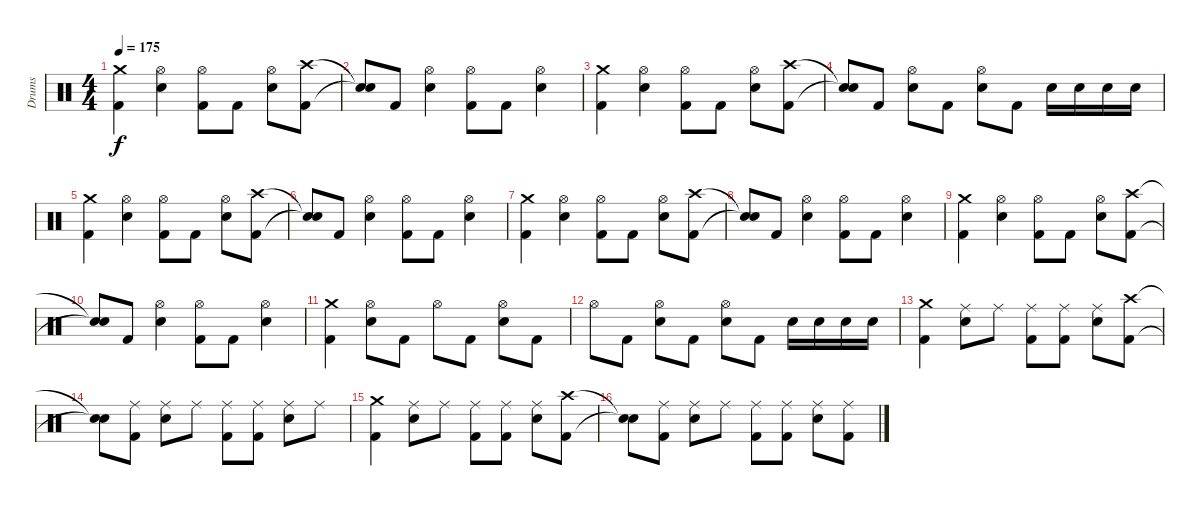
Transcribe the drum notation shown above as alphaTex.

\track ("Drums" "Drums") {instrument percussion}
\staff {score}
\articulation defaults
\ts (4 4)
\tempo 175
\clef neutral
\ks c
("Crash medium (hit)" "Kick (hit) 2").4{dy f} ("Hi-Hat (open)" "Electric Snare (hit)").4 ("Hi-Hat (open)" "Kick (hit) 2").8 "Kick (hit) 2".8 ("Hi-Hat (open)" "Electric Snare (hit)").8 ("Crash high (hit)" "Kick (hit) 2").8 |
("Snare (hit)"{t} "Snare (hit)"{t}).8 "Kick (hit) 2".8 ("Hi-Hat (open)" "Electric Snare (hit)").4 ("Hi-Hat (open)" "Kick (hit) 2").8 "Kick (hit) 2".8 ("Hi-Hat (open)" "Electric Snare (hit)").4 |
("Crash medium (hit)" "Kick (hit) 2").4 ("Hi-Hat (open)" "Electric Snare (hit)").4 ("Hi-Hat (open)" "Kick (hit) 2").8 "Kick (hit) 2".8 ("Hi-Hat (open)" "Electric Snare (hit)").8 ("Crash high (hit)" "Kick (hit) 2").8 |
("Snare (hit)"{t} "Snare (hit)"{t}).8 "Kick (hit) 2".8 ("Hi-Hat (open)" "Electric Snare (hit)").8 "Kick (hit) 2".8 ("Hi-Hat (open)" "Electric Snare (hit)").8 "Kick (hit) 2".8 "Electric Snare (hit)".16 "Electric Snare (hit)".16 "Electric Snare (hit)".16 "Electric Snare (hit)".16 |
("Crash medium (hit)" "Kick (hit) 2").4 ("Hi-Hat (open)" "Electric Snare (hit)").4 ("Hi-Hat (open)" "Kick (hit) 2").8 "Kick (hit) 2".8 ("Hi-Hat (open)" "Electric Snare (hit)").8 ("Crash high (hit)" "Kick (hit) 2").8 |
("Snare (hit)"{t} "Snare (hit)"{t}).8 "Kick (hit) 2".8 ("Hi-Hat (open)" "Electric Snare (hit)").4 ("Hi-Hat (open)" "Kick (hit) 2").8 "Kick (hit) 2".8 ("Hi-Hat (open)" "Electric Snare (hit)").4 |
("Crash medium (hit)" "Kick (hit) 2").4 ("Hi-Hat (open)" "Electric Snare (hit)").4 ("Hi-Hat (open)" "Kick (hit) 2").8 "Kick (hit) 2".8 ("Hi-Hat (open)" "Electric Snare (hit)").8 ("Crash high (hit)" "Kick (hit) 2").8 |
("Snare (hit)"{t} "Snare (hit)"{t}).8 "Kick (hit) 2".8 ("Hi-Hat (open)" "Electric Snare (hit)").4 ("Hi-Hat (open)" "Kick (hit) 2").8 "Kick (hit) 2".8 ("Hi-Hat (open)" "Electric Snare (hit)").4 |
("Crash medium (hit)" "Kick (hit) 2").4 ("Hi-Hat (open)" "Electric Snare (hit)").4 ("Hi-Hat (open)" "Kick (hit) 2").8 "Kick (hit) 2".8 ("Hi-Hat (open)" "Electric Snare (hit)").8 ("Crash high (hit)" "Kick (hit) 2").8 |
("Snare (hit)"{t} "Snare (hit)"{t}).8 "Kick (hit) 2".8 ("Hi-Hat (open)" "Electric Snare (hit)").4 ("Hi-Hat (open)" "Kick (hit) 2").8 "Kick (hit) 2".8 ("Hi-Hat (open)" "Electric Snare (hit)").4 |
("Crash medium (hit)" "Kick (hit) 2").4 ("Hi-Hat (open)" "Electric Snare (hit)").8 "Kick (hit) 2".8 "Hi-Hat (open)".8 "Kick (hit) 2".8 ("Hi-Hat (open)" "Electric Snare (hit)").8 "Kick (hit) 2".8 |
"Hi-Hat (open)".8 "Kick (hit) 2".8 ("Hi-Hat (open)" "Electric Snare (hit)").8 "Kick (hit) 2".8 ("Hi-Hat (open)" "Electric Snare (hit)").8 "Kick (hit) 2".8 "Electric Snare (hit)".16 "Electric Snare (hit)".16 "Electric Snare (hit)".16 "Electric Snare (hit)".16 |
("Crash medium (hit)" "Kick (hit) 2").4 ("Ride (middle)" "Electric Snare (hit)").8 "Ride (middle)".8 ("Ride (middle)" "Kick (hit) 2").8 ("Ride (middle)" "Kick (hit) 2").8 ("Ride (middle)" "Electric Snare (hit)").8 ("Crash high (hit)" "Kick (hit) 2").8 |
("Snare (hit)"{t} "Snare (hit)"{t}).8 ("Ride (middle)" "Kick (hit) 2").8 ("Ride (middle)" "Electric Snare (hit)").8 "Ride (middle)".8 ("Ride (middle)" "Kick (hit) 2").8 ("Ride (middle)" "Kick (hit) 2").8 ("Ride (middle)" "Electric Snare (hit)").8 "Ride (middle)".8 |
("Crash medium (hit)" "Kick (hit) 2").4 ("Ride (middle)" "Electric Snare (hit)").8 "Ride (middle)".8 ("Ride (middle)" "Kick (hit) 2").8 ("Ride (middle)" "Kick (hit) 2").8 ("Ride (middle)" "Electric Snare (hit)").8 ("Crash high (hit)" "Kick (hit) 2").8 |
("Snare (hit)"{t} "Snare (hit)"{t}).8 ("Ride (middle)" "Kick (hit) 2").8 ("Ride (middle)" "Electric Snare (hit)").8 "Ride (middle)".8 ("Ride (middle)" "Kick (hit) 2").8 ("Ride (middle)" "Kick (hit) 2").8 ("Ride (middle)" "Electric Snare (hit)").8 ("Ride (middle)" "Kick (hit) 2").8
